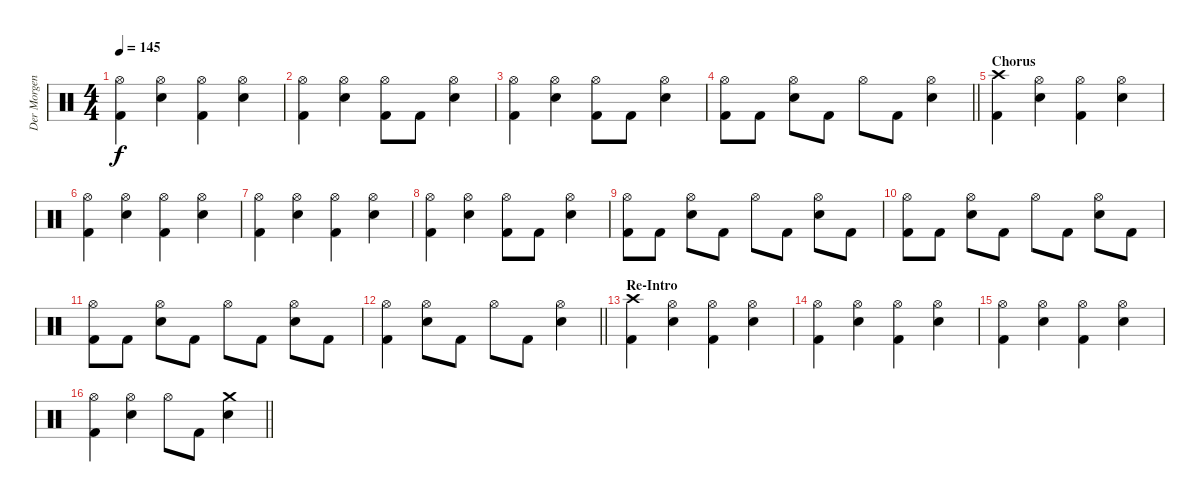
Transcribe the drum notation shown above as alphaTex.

\track ("Der Morgenstern" "Der Morgen") {instrument percussion}
\staff {score}
\articulation defaults
\ts (4 4)
\tempo 145
\clef neutral
\ks c
("Hi-Hat (open)" "Kick (hit) 2").4{dy f} ("Hi-Hat (open)" "Electric Snare (hit)").4 ("Hi-Hat (open)" "Kick (hit) 2").4 ("Hi-Hat (open)" "Electric Snare (hit)").4 |
("Hi-Hat (open)" "Kick (hit) 2").4 ("Hi-Hat (open)" "Electric Snare (hit)").4 ("Hi-Hat (open)" "Kick (hit) 2").8 "Kick (hit) 2".8 ("Hi-Hat (open)" "Electric Snare (hit)").4 |
("Hi-Hat (open)" "Kick (hit) 2").4 ("Hi-Hat (open)" "Electric Snare (hit)").4 ("Hi-Hat (open)" "Kick (hit) 2").8 "Kick (hit) 2".8 ("Hi-Hat (open)" "Electric Snare (hit)").4 |
\barLineRight lightlight
("Hi-Hat (open)" "Kick (hit) 2").8 "Kick (hit) 2".8 ("Hi-Hat (open)" "Electric Snare (hit)").8 "Kick (hit) 2".8 "Hi-Hat (open)".8 "Kick (hit) 2".8 ("Hi-Hat (open)" "Electric Snare (hit)").4 |
\section ("" "Chorus")
("Crash high (hit)" "Kick (hit) 2").4 ("Hi-Hat (open)" "Electric Snare (hit)").4 ("Hi-Hat (open)" "Kick (hit) 2").4 ("Hi-Hat (open)" "Electric Snare (hit)").4 |
("Hi-Hat (open)" "Kick (hit) 2").4 ("Hi-Hat (open)" "Electric Snare (hit)").4 ("Hi-Hat (open)" "Kick (hit) 2").4 ("Hi-Hat (open)" "Electric Snare (hit)").4 |
("Hi-Hat (open)" "Kick (hit) 2").4 ("Hi-Hat (open)" "Electric Snare (hit)").4 ("Hi-Hat (open)" "Kick (hit) 2").4 ("Hi-Hat (open)" "Electric Snare (hit)").4 |
("Hi-Hat (open)" "Kick (hit) 2").4 ("Hi-Hat (open)" "Electric Snare (hit)").4 ("Hi-Hat (open)" "Kick (hit) 2").8 "Kick (hit) 2".8 ("Hi-Hat (open)" "Electric Snare (hit)").4 |
("Hi-Hat (open)" "Kick (hit) 2").8 "Kick (hit) 2".8 ("Hi-Hat (open)" "Electric Snare (hit)").8 "Kick (hit) 2".8 "Hi-Hat (open)".8 "Kick (hit) 2".8 ("Hi-Hat (open)" "Electric Snare (hit)").8 "Kick (hit) 2".8 |
("Hi-Hat (open)" "Kick (hit) 2").8 "Kick (hit) 2".8 ("Hi-Hat (open)" "Electric Snare (hit)").8 "Kick (hit) 2".8 "Hi-Hat (open)".8 "Kick (hit) 2".8 ("Hi-Hat (open)" "Electric Snare (hit)").8 "Kick (hit) 2".8 |
("Hi-Hat (open)" "Kick (hit) 2").8 "Kick (hit) 2".8 ("Hi-Hat (open)" "Electric Snare (hit)").8 "Kick (hit) 2".8 "Hi-Hat (open)".8 "Kick (hit) 2".8 ("Hi-Hat (open)" "Electric Snare (hit)").8 "Kick (hit) 2".8 |
\barLineRight lightlight
("Hi-Hat (open)" "Kick (hit) 2").4 ("Hi-Hat (open)" "Electric Snare (hit)").8 "Kick (hit) 2".8 "Hi-Hat (open)".8 "Kick (hit) 2".8 ("Hi-Hat (open)" "Electric Snare (hit)").4 |
\section ("" "Re-Intro")
("Crash high (hit)" "Kick (hit) 2").4 ("Hi-Hat (open)" "Electric Snare (hit)").4 ("Hi-Hat (open)" "Kick (hit) 2").4 ("Hi-Hat (open)" "Electric Snare (hit)").4 |
("Hi-Hat (open)" "Kick (hit) 2").4 ("Hi-Hat (open)" "Electric Snare (hit)").4 ("Hi-Hat (open)" "Kick (hit) 2").4 ("Hi-Hat (open)" "Electric Snare (hit)").4 |
("Hi-Hat (open)" "Kick (hit) 2").4 ("Hi-Hat (open)" "Electric Snare (hit)").4 ("Hi-Hat (open)" "Kick (hit) 2").4 ("Hi-Hat (open)" "Electric Snare (hit)").4 |
\barLineRight lightlight
("Hi-Hat (open)" "Kick (hit) 2").4 ("Hi-Hat (open)" "Electric Snare (hit)").4 "Hi-Hat (open)".8 "Kick (hit) 2".8 ("Crash medium (hit)" "Electric Snare (hit)").4
